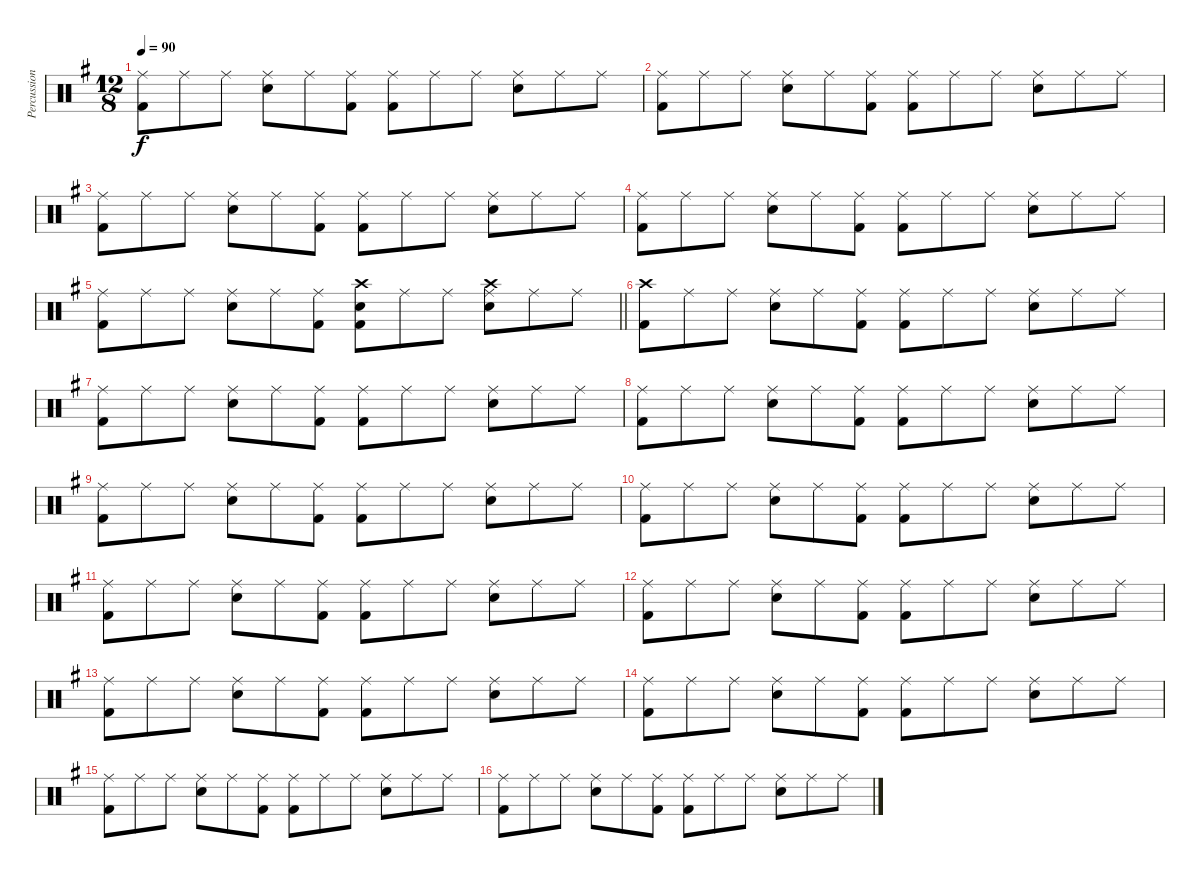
\track ("Percussion" "Percussion") {instrument percussion}
\staff {score}
\articulation defaults
\ts (12 8)
\tempo 90
\clef neutral
\ks g
("Ride (middle)" "Kick (hit) 2").8{dy f} "Ride (middle)".8 "Ride (middle)".8 ("Ride (middle)" "Snare (hit) 2").8 "Ride (middle)".8 ("Ride (middle)" "Kick (hit) 2").8 ("Ride (middle)" "Kick (hit) 2").8 "Ride (middle)".8 "Ride (middle)".8 ("Ride (middle)" "Snare (hit) 2").8 "Ride (middle)".8 "Ride (middle)".8 |
("Ride (middle)" "Kick (hit) 2").8 "Ride (middle)".8 "Ride (middle)".8 ("Ride (middle)" "Snare (hit) 2").8 "Ride (middle)".8 ("Ride (middle)" "Kick (hit) 2").8 ("Ride (middle)" "Kick (hit) 2").8 "Ride (middle)".8 "Ride (middle)".8 ("Ride (middle)" "Snare (hit) 2").8 "Ride (middle)".8 "Ride (middle)".8 |
("Ride (middle)" "Kick (hit) 2").8 "Ride (middle)".8 "Ride (middle)".8 ("Ride (middle)" "Snare (hit) 2").8 "Ride (middle)".8 ("Ride (middle)" "Kick (hit) 2").8 ("Ride (middle)" "Kick (hit) 2").8 "Ride (middle)".8 "Ride (middle)".8 ("Ride (middle)" "Snare (hit) 2").8 "Ride (middle)".8 "Ride (middle)".8 |
("Ride (middle)" "Kick (hit) 2").8 "Ride (middle)".8 "Ride (middle)".8 ("Ride (middle)" "Snare (hit) 2").8 "Ride (middle)".8 ("Ride (middle)" "Kick (hit) 2").8 ("Ride (middle)" "Kick (hit) 2").8 "Ride (middle)".8 "Ride (middle)".8 ("Ride (middle)" "Snare (hit) 2").8 "Ride (middle)".8 "Ride (middle)".8 |
\barLineRight lightlight
("Ride (middle)" "Kick (hit) 2").8 "Ride (middle)".8 "Ride (middle)".8 ("Ride (middle)" "Snare (hit) 2").8 "Ride (middle)".8 ("Ride (middle)" "Kick (hit) 2").8 ("Crash high (hit)" "Snare (hit) 2" "Kick (hit) 2").8 "Ride (middle)".8 "Ride (middle)".8 ("Ride (middle)" "Crash high (hit)" "Snare (hit) 2").8 "Ride (middle)".8 "Ride (middle)".8 |
("Crash high (hit)" "Kick (hit) 2").8 "Ride (middle)".8 "Ride (middle)".8 ("Ride (middle)" "Snare (hit) 2").8 "Ride (middle)".8 ("Ride (middle)" "Kick (hit) 2").8 ("Ride (middle)" "Kick (hit) 2").8 "Ride (middle)".8 "Ride (middle)".8 ("Ride (middle)" "Snare (hit) 2").8 "Ride (middle)".8 "Ride (middle)".8 |
("Ride (middle)" "Kick (hit) 2").8 "Ride (middle)".8 "Ride (middle)".8 ("Ride (middle)" "Snare (hit) 2").8 "Ride (middle)".8 ("Ride (middle)" "Kick (hit) 2").8 ("Ride (middle)" "Kick (hit) 2").8 "Ride (middle)".8 "Ride (middle)".8 ("Ride (middle)" "Snare (hit) 2").8 "Ride (middle)".8 "Ride (middle)".8 |
("Ride (middle)" "Kick (hit) 2").8 "Ride (middle)".8 "Ride (middle)".8 ("Ride (middle)" "Snare (hit) 2").8 "Ride (middle)".8 ("Ride (middle)" "Kick (hit) 2").8 ("Ride (middle)" "Kick (hit) 2").8 "Ride (middle)".8 "Ride (middle)".8 ("Ride (middle)" "Snare (hit) 2").8 "Ride (middle)".8 "Ride (middle)".8 |
("Ride (middle)" "Kick (hit) 2").8 "Ride (middle)".8 "Ride (middle)".8 ("Ride (middle)" "Snare (hit) 2").8 "Ride (middle)".8 ("Ride (middle)" "Kick (hit) 2").8 ("Ride (middle)" "Kick (hit) 2").8 "Ride (middle)".8 "Ride (middle)".8 ("Ride (middle)" "Snare (hit) 2").8 "Ride (middle)".8 "Ride (middle)".8 |
("Ride (middle)" "Kick (hit) 2").8 "Ride (middle)".8 "Ride (middle)".8 ("Ride (middle)" "Snare (hit) 2").8 "Ride (middle)".8 ("Ride (middle)" "Kick (hit) 2").8 ("Ride (middle)" "Kick (hit) 2").8 "Ride (middle)".8 "Ride (middle)".8 ("Ride (middle)" "Snare (hit) 2").8 "Ride (middle)".8 "Ride (middle)".8 |
("Ride (middle)" "Kick (hit) 2").8 "Ride (middle)".8 "Ride (middle)".8 ("Ride (middle)" "Snare (hit) 2").8 "Ride (middle)".8 ("Ride (middle)" "Kick (hit) 2").8 ("Ride (middle)" "Kick (hit) 2").8 "Ride (middle)".8 "Ride (middle)".8 ("Ride (middle)" "Snare (hit) 2").8 "Ride (middle)".8 "Ride (middle)".8 |
("Ride (middle)" "Kick (hit) 2").8 "Ride (middle)".8 "Ride (middle)".8 ("Ride (middle)" "Snare (hit) 2").8 "Ride (middle)".8 ("Ride (middle)" "Kick (hit) 2").8 ("Ride (middle)" "Kick (hit) 2").8 "Ride (middle)".8 "Ride (middle)".8 ("Ride (middle)" "Snare (hit) 2").8 "Ride (middle)".8 "Ride (middle)".8 |
("Ride (middle)" "Kick (hit) 2").8 "Ride (middle)".8 "Ride (middle)".8 ("Ride (middle)" "Snare (hit) 2").8 "Ride (middle)".8 ("Ride (middle)" "Kick (hit) 2").8 ("Ride (middle)" "Kick (hit) 2").8 "Ride (middle)".8 "Ride (middle)".8 ("Ride (middle)" "Snare (hit) 2").8 "Ride (middle)".8 "Ride (middle)".8 |
("Ride (middle)" "Kick (hit) 2").8 "Ride (middle)".8 "Ride (middle)".8 ("Ride (middle)" "Snare (hit) 2").8 "Ride (middle)".8 ("Ride (middle)" "Kick (hit) 2").8 ("Ride (middle)" "Kick (hit) 2").8 "Ride (middle)".8 "Ride (middle)".8 ("Ride (middle)" "Snare (hit) 2").8 "Ride (middle)".8 "Ride (middle)".8 |
("Ride (middle)" "Kick (hit) 2").8 "Ride (middle)".8 "Ride (middle)".8 ("Ride (middle)" "Snare (hit) 2").8 "Ride (middle)".8 ("Ride (middle)" "Kick (hit) 2").8 ("Ride (middle)" "Kick (hit) 2").8 "Ride (middle)".8 "Ride (middle)".8 ("Ride (middle)" "Snare (hit) 2").8 "Ride (middle)".8 "Ride (middle)".8 |
("Ride (middle)" "Kick (hit) 2").8 "Ride (middle)".8 "Ride (middle)".8 ("Ride (middle)" "Snare (hit) 2").8 "Ride (middle)".8 ("Ride (middle)" "Kick (hit) 2").8 ("Ride (middle)" "Kick (hit) 2").8 "Ride (middle)".8 "Ride (middle)".8 ("Ride (middle)" "Snare (hit) 2").8 "Ride (middle)".8 "Ride (middle)".8
